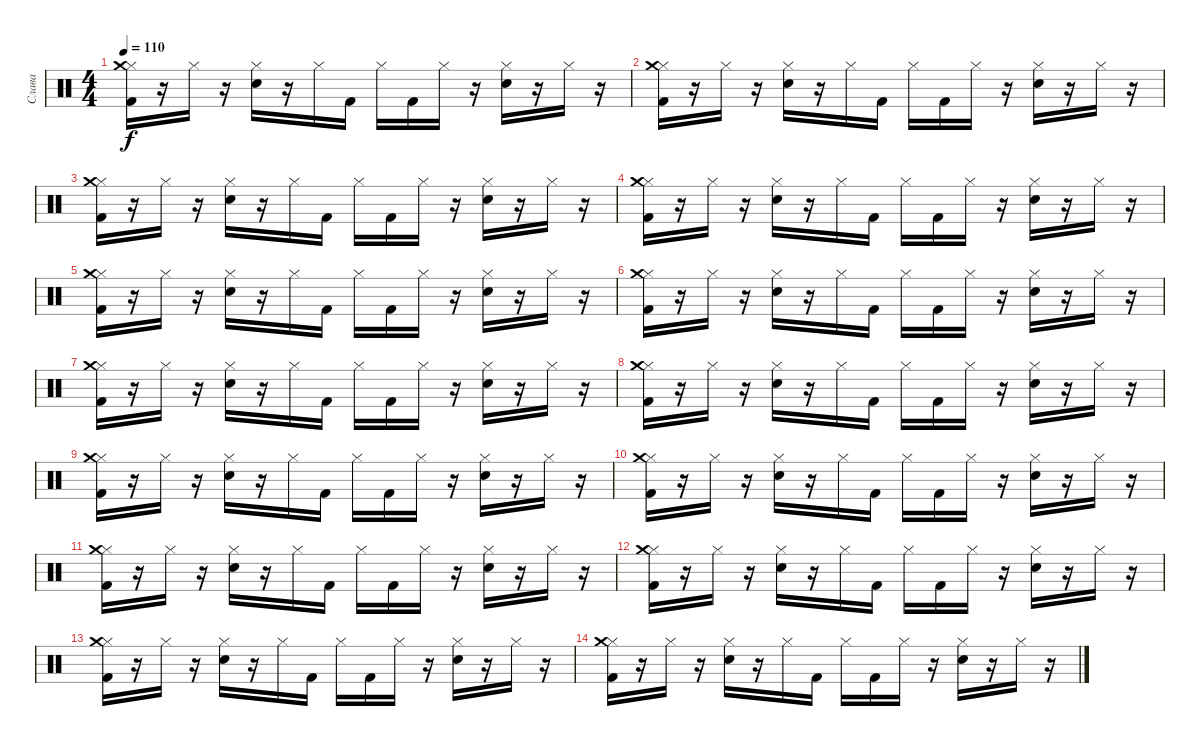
\track ("Слава" "Слава") {instrument percussion}
\staff {score}
\articulation defaults
\ts (4 4)
\tempo 110
\clef neutral
\ks c
("Hi-Hat (closed)" "Crash medium (hit)" "Kick (hit) 2").16{dy f} r.16 "Hi-Hat (closed)".16 r.16 ("Hi-Hat (closed)" "Electric Snare (hit)").16 r.16 "Hi-Hat (closed)".16 "Kick (hit) 2".16 "Hi-Hat (closed)".16 "Kick (hit) 2".16 "Hi-Hat (closed)".16 r.16 ("Hi-Hat (closed)" "Electric Snare (hit)").16 r.16 "Hi-Hat (closed)".16 r.16 |
("Hi-Hat (closed)" "Crash medium (hit)" "Kick (hit) 2").16 r.16 "Hi-Hat (closed)".16 r.16 ("Hi-Hat (closed)" "Electric Snare (hit)").16 r.16 "Hi-Hat (closed)".16 "Kick (hit) 2".16 "Hi-Hat (closed)".16 "Kick (hit) 2".16 "Hi-Hat (closed)".16 r.16 ("Hi-Hat (closed)" "Electric Snare (hit)").16 r.16 "Hi-Hat (closed)".16 r.16 |
("Hi-Hat (closed)" "Crash medium (hit)" "Kick (hit) 2").16 r.16 "Hi-Hat (closed)".16 r.16 ("Hi-Hat (closed)" "Electric Snare (hit)").16 r.16 "Hi-Hat (closed)".16 "Kick (hit) 2".16 "Hi-Hat (closed)".16 "Kick (hit) 2".16 "Hi-Hat (closed)".16 r.16 ("Hi-Hat (closed)" "Electric Snare (hit)").16 r.16 "Hi-Hat (closed)".16 r.16 |
("Hi-Hat (closed)" "Crash medium (hit)" "Kick (hit) 2").16 r.16 "Hi-Hat (closed)".16 r.16 ("Hi-Hat (closed)" "Electric Snare (hit)").16 r.16 "Hi-Hat (closed)".16 "Kick (hit) 2".16 "Hi-Hat (closed)".16 "Kick (hit) 2".16 "Hi-Hat (closed)".16 r.16 ("Hi-Hat (closed)" "Electric Snare (hit)").16 r.16 "Hi-Hat (closed)".16 r.16 |
("Hi-Hat (closed)" "Crash medium (hit)" "Kick (hit) 2").16 r.16 "Hi-Hat (closed)".16 r.16 ("Hi-Hat (closed)" "Electric Snare (hit)").16 r.16 "Hi-Hat (closed)".16 "Kick (hit) 2".16 "Hi-Hat (closed)".16 "Kick (hit) 2".16 "Hi-Hat (closed)".16 r.16 ("Hi-Hat (closed)" "Electric Snare (hit)").16 r.16 "Hi-Hat (closed)".16 r.16 |
("Hi-Hat (closed)" "Crash medium (hit)" "Kick (hit) 2").16 r.16 "Hi-Hat (closed)".16 r.16 ("Hi-Hat (closed)" "Electric Snare (hit)").16 r.16 "Hi-Hat (closed)".16 "Kick (hit) 2".16 "Hi-Hat (closed)".16 "Kick (hit) 2".16 "Hi-Hat (closed)".16 r.16 ("Hi-Hat (closed)" "Electric Snare (hit)").16 r.16 "Hi-Hat (closed)".16 r.16 |
("Hi-Hat (closed)" "Crash medium (hit)" "Kick (hit) 2").16 r.16 "Hi-Hat (closed)".16 r.16 ("Hi-Hat (closed)" "Electric Snare (hit)").16 r.16 "Hi-Hat (closed)".16 "Kick (hit) 2".16 "Hi-Hat (closed)".16 "Kick (hit) 2".16 "Hi-Hat (closed)".16 r.16 ("Hi-Hat (closed)" "Electric Snare (hit)").16 r.16 "Hi-Hat (closed)".16 r.16 |
("Hi-Hat (closed)" "Crash medium (hit)" "Kick (hit) 2").16 r.16 "Hi-Hat (closed)".16 r.16 ("Hi-Hat (closed)" "Electric Snare (hit)").16 r.16 "Hi-Hat (closed)".16 "Kick (hit) 2".16 "Hi-Hat (closed)".16 "Kick (hit) 2".16 "Hi-Hat (closed)".16 r.16 ("Hi-Hat (closed)" "Electric Snare (hit)").16 r.16 "Hi-Hat (closed)".16 r.16 |
("Hi-Hat (closed)" "Crash medium (hit)" "Kick (hit) 2").16 r.16 "Hi-Hat (closed)".16 r.16 ("Hi-Hat (closed)" "Electric Snare (hit)").16 r.16 "Hi-Hat (closed)".16 "Kick (hit) 2".16 "Hi-Hat (closed)".16 "Kick (hit) 2".16 "Hi-Hat (closed)".16 r.16 ("Hi-Hat (closed)" "Electric Snare (hit)").16 r.16 "Hi-Hat (closed)".16 r.16 |
("Hi-Hat (closed)" "Crash medium (hit)" "Kick (hit) 2").16 r.16 "Hi-Hat (closed)".16 r.16 ("Hi-Hat (closed)" "Electric Snare (hit)").16 r.16 "Hi-Hat (closed)".16 "Kick (hit) 2".16 "Hi-Hat (closed)".16 "Kick (hit) 2".16 "Hi-Hat (closed)".16 r.16 ("Hi-Hat (closed)" "Electric Snare (hit)").16 r.16 "Hi-Hat (closed)".16 r.16 |
("Hi-Hat (closed)" "Crash medium (hit)" "Kick (hit) 2").16 r.16 "Hi-Hat (closed)".16 r.16 ("Hi-Hat (closed)" "Electric Snare (hit)").16 r.16 "Hi-Hat (closed)".16 "Kick (hit) 2".16 "Hi-Hat (closed)".16 "Kick (hit) 2".16 "Hi-Hat (closed)".16 r.16 ("Hi-Hat (closed)" "Electric Snare (hit)").16 r.16 "Hi-Hat (closed)".16 r.16 |
("Hi-Hat (closed)" "Crash medium (hit)" "Kick (hit) 2").16 r.16 "Hi-Hat (closed)".16 r.16 ("Hi-Hat (closed)" "Electric Snare (hit)").16 r.16 "Hi-Hat (closed)".16 "Kick (hit) 2".16 "Hi-Hat (closed)".16 "Kick (hit) 2".16 "Hi-Hat (closed)".16 r.16 ("Hi-Hat (closed)" "Electric Snare (hit)").16 r.16 "Hi-Hat (closed)".16 r.16 |
("Hi-Hat (closed)" "Crash medium (hit)" "Kick (hit) 2").16 r.16 "Hi-Hat (closed)".16 r.16 ("Hi-Hat (closed)" "Electric Snare (hit)").16 r.16 "Hi-Hat (closed)".16 "Kick (hit) 2".16 "Hi-Hat (closed)".16 "Kick (hit) 2".16 "Hi-Hat (closed)".16 r.16 ("Hi-Hat (closed)" "Electric Snare (hit)").16 r.16 "Hi-Hat (closed)".16 r.16 |
("Hi-Hat (closed)" "Crash medium (hit)" "Kick (hit) 2").16 r.16 "Hi-Hat (closed)".16 r.16 ("Hi-Hat (closed)" "Electric Snare (hit)").16 r.16 "Hi-Hat (closed)".16 "Kick (hit) 2".16 "Hi-Hat (closed)".16 "Kick (hit) 2".16 "Hi-Hat (closed)".16 r.16 ("Hi-Hat (closed)" "Electric Snare (hit)").16 r.16 "Hi-Hat (closed)".16 r.16
